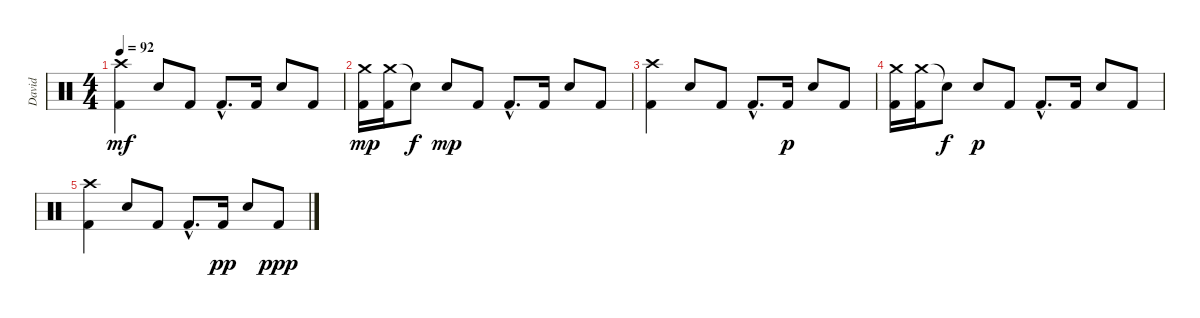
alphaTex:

\track ("David" "David") {instrument percussion}
\staff {score}
\articulation defaults
\ts (4 4)
\tempo 92
\clef neutral
\ks c
("Crash high (hit)" "Kick (hit) 2").4{dy mf} "Snare (hit) 2".8 "Kick (hit) 2".8 "Kick (hit) 2"{hac}.8{d} "Kick (hit) 2".16 "Snare (hit) 2".8 "Kick (hit) 2".8 |
("Crash medium (hit)" "Kick (hit) 2").16{dy mp} ("Crash medium (hit)" "Kick (hit) 2").16 "Snare (hit)"{t}.8{dy f} "Snare (hit) 2".8{dy mp} "Kick (hit) 2".8 "Kick (hit) 2"{hac}.8{d} "Kick (hit) 2".16 "Snare (hit) 2".8 "Kick (hit) 2".8 |
("Crash high (hit)" "Kick (hit) 2").4 "Snare (hit) 2".8 "Kick (hit) 2".8 "Kick (hit) 2"{hac}.8{d} "Kick (hit) 2".16{dy p} "Snare (hit) 2".8 "Kick (hit) 2".8 |
("Crash medium (hit)" "Kick (hit) 2").16 ("Crash medium (hit)" "Kick (hit) 2").16 "Snare (hit)"{t}.8{dy f} "Snare (hit) 2".8{dy p} "Kick (hit) 2".8 "Kick (hit) 2"{hac}.8{d} "Kick (hit) 2".16 "Snare (hit) 2".8 "Kick (hit) 2".8 |
("Crash high (hit)" "Kick (hit) 2").4 "Snare (hit) 2".8 "Kick (hit) 2".8 "Kick (hit) 2"{hac}.8{d} "Kick (hit) 2".16{dy pp} "Snare (hit) 2".8 "Kick (hit) 2".8{dy ppp}
